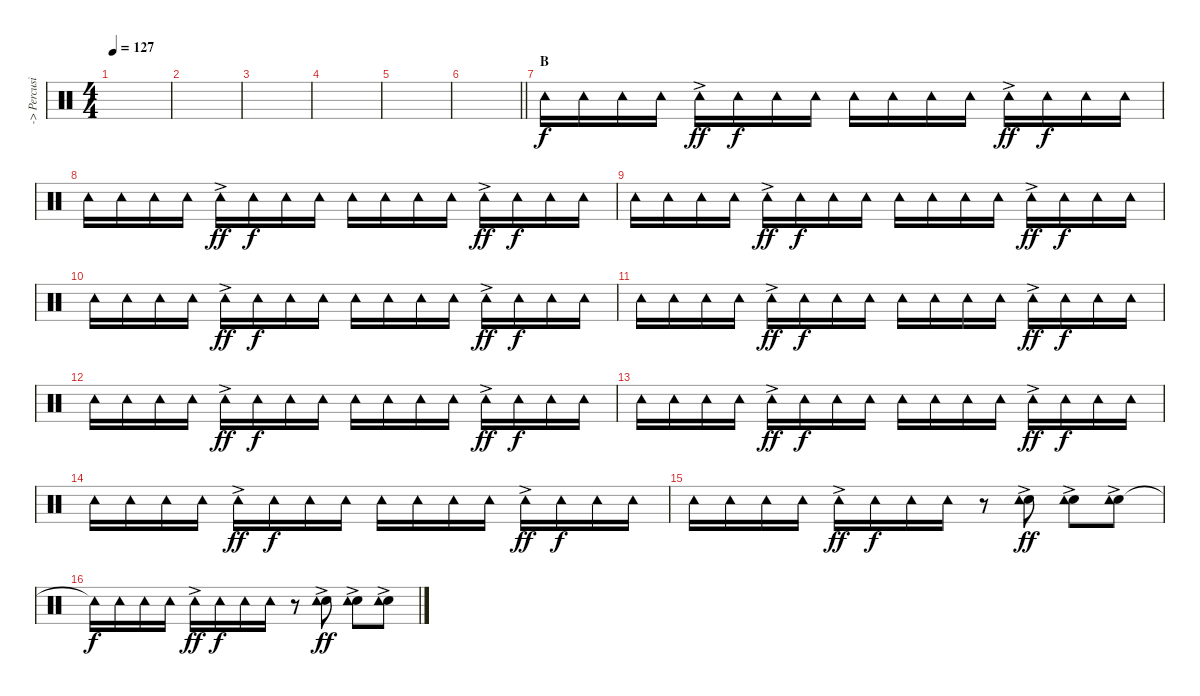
\track ("-> Percusion" "-> Percusi") {instrument percussion}
\staff {score}
\articulation defaults
\ts (4 4)
\tempo 127
\clef neutral
\ks c
|
|
|
|
|
\barLineRight lightlight
|
\section ("" "B")
"Tambourine (hit)".16 "Tambourine (hit)".16 "Tambourine (hit)".16 "Tambourine (hit)".16 "Tambourine (hit)"{ac}.16{dy ff} "Tambourine (hit)".16{dy f} "Tambourine (hit)".16 "Tambourine (hit)".16 "Tambourine (hit)".16 "Tambourine (hit)".16 "Tambourine (hit)".16 "Tambourine (hit)".16 "Tambourine (hit)"{ac}.16{dy ff} "Tambourine (hit)".16{dy f} "Tambourine (hit)".16 "Tambourine (hit)".16 |
"Tambourine (hit)".16 "Tambourine (hit)".16 "Tambourine (hit)".16 "Tambourine (hit)".16 "Tambourine (hit)"{ac}.16{dy ff} "Tambourine (hit)".16{dy f} "Tambourine (hit)".16 "Tambourine (hit)".16 "Tambourine (hit)".16 "Tambourine (hit)".16 "Tambourine (hit)".16 "Tambourine (hit)".16 "Tambourine (hit)"{ac}.16{dy ff} "Tambourine (hit)".16{dy f} "Tambourine (hit)".16 "Tambourine (hit)".16 |
"Tambourine (hit)".16 "Tambourine (hit)".16 "Tambourine (hit)".16 "Tambourine (hit)".16 "Tambourine (hit)"{ac}.16{dy ff} "Tambourine (hit)".16{dy f} "Tambourine (hit)".16 "Tambourine (hit)".16 "Tambourine (hit)".16 "Tambourine (hit)".16 "Tambourine (hit)".16 "Tambourine (hit)".16 "Tambourine (hit)"{ac}.16{dy ff} "Tambourine (hit)".16{dy f} "Tambourine (hit)".16 "Tambourine (hit)".16 |
"Tambourine (hit)".16 "Tambourine (hit)".16 "Tambourine (hit)".16 "Tambourine (hit)".16 "Tambourine (hit)"{ac}.16{dy ff} "Tambourine (hit)".16{dy f} "Tambourine (hit)".16 "Tambourine (hit)".16 "Tambourine (hit)".16 "Tambourine (hit)".16 "Tambourine (hit)".16 "Tambourine (hit)".16 "Tambourine (hit)"{ac}.16{dy ff} "Tambourine (hit)".16{dy f} "Tambourine (hit)".16 "Tambourine (hit)".16 |
"Tambourine (hit)".16 "Tambourine (hit)".16 "Tambourine (hit)".16 "Tambourine (hit)".16 "Tambourine (hit)"{ac}.16{dy ff} "Tambourine (hit)".16{dy f} "Tambourine (hit)".16 "Tambourine (hit)".16 "Tambourine (hit)".16 "Tambourine (hit)".16 "Tambourine (hit)".16 "Tambourine (hit)".16 "Tambourine (hit)"{ac}.16{dy ff} "Tambourine (hit)".16{dy f} "Tambourine (hit)".16 "Tambourine (hit)".16 |
"Tambourine (hit)".16 "Tambourine (hit)".16 "Tambourine (hit)".16 "Tambourine (hit)".16 "Tambourine (hit)"{ac}.16{dy ff} "Tambourine (hit)".16{dy f} "Tambourine (hit)".16 "Tambourine (hit)".16 "Tambourine (hit)".16 "Tambourine (hit)".16 "Tambourine (hit)".16 "Tambourine (hit)".16 "Tambourine (hit)"{ac}.16{dy ff} "Tambourine (hit)".16{dy f} "Tambourine (hit)".16 "Tambourine (hit)".16 |
"Tambourine (hit)".16 "Tambourine (hit)".16 "Tambourine (hit)".16 "Tambourine (hit)".16 "Tambourine (hit)"{ac}.16{dy ff} "Tambourine (hit)".16{dy f} "Tambourine (hit)".16 "Tambourine (hit)".16 "Tambourine (hit)".16 "Tambourine (hit)".16 "Tambourine (hit)".16 "Tambourine (hit)".16 "Tambourine (hit)"{ac}.16{dy ff} "Tambourine (hit)".16{dy f} "Tambourine (hit)".16 "Tambourine (hit)".16 |
"Tambourine (hit)".16 "Tambourine (hit)".16 "Tambourine (hit)".16 "Tambourine (hit)".16 "Tambourine (hit)"{ac}.16{dy ff} "Tambourine (hit)".16{dy f} "Tambourine (hit)".16 "Tambourine (hit)".16 "Tambourine (hit)".16 "Tambourine (hit)".16 "Tambourine (hit)".16 "Tambourine (hit)".16 "Tambourine (hit)"{ac}.16{dy ff} "Tambourine (hit)".16{dy f} "Tambourine (hit)".16 "Tambourine (hit)".16 |
"Tambourine (hit)".16 "Tambourine (hit)".16 "Tambourine (hit)".16 "Tambourine (hit)".16 "Tambourine (hit)"{ac}.16{dy ff} "Tambourine (hit)".16{dy f} "Tambourine (hit)".16 "Tambourine (hit)".16 r.8 ("Hand Clap (hit)"{ac} "Tambourine (hit)"{ac}).8{dy ff} ("Hand Clap (hit)"{ac} "Tambourine (hit)"{ac}).8 ("Hand Clap (hit)"{ac} "Tambourine (hit)"{ac}).8 |
"Tambourine (hit)"{t}.16{dy f} "Tambourine (hit)".16 "Tambourine (hit)".16 "Tambourine (hit)".16 "Tambourine (hit)"{ac}.16{dy ff} "Tambourine (hit)".16{dy f} "Tambourine (hit)".16 "Tambourine (hit)".16 r.8 ("Hand Clap (hit)"{ac} "Tambourine (hit)"{ac}).8{dy ff} ("Hand Clap (hit)"{ac} "Tambourine (hit)"{ac}).8 ("Hand Clap (hit)"{ac} "Tambourine (hit)"{ac}).8
